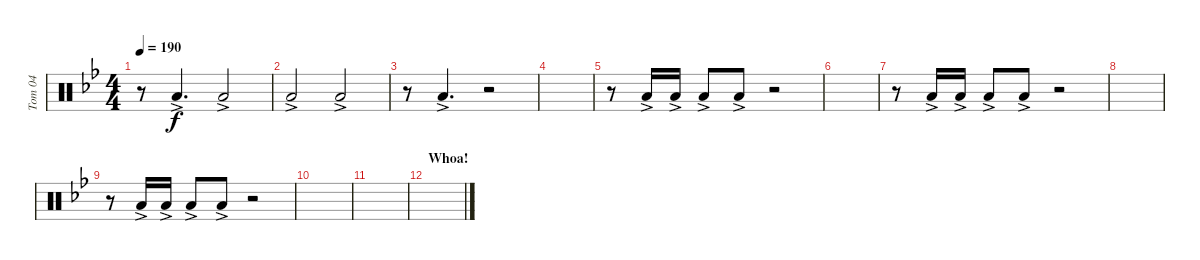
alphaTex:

\track ("Tom 04" "Tom 04") {instrument percussion}
\staff {score}
\articulation defaults
\ts (4 4)
\tempo 190
\clef neutral
\ks bb
r.8{dy f} "Low Tom (hit)"{ac}.4{d} "Low Tom (hit)"{ac}.2 |
"Low Tom (hit)"{ac}.2 "Low Tom (hit)"{ac}.2 |
r.8 "Low Tom (hit)"{ac}.4{d} r.2 |
|
r.8 "Low Tom (hit)"{ac}.16 "Low Tom (hit)"{ac}.16 "Low Tom (hit)"{ac}.8 "Low Tom (hit)"{ac}.8 r.2 |
|
r.8 "Low Tom (hit)"{ac}.16 "Low Tom (hit)"{ac}.16 "Low Tom (hit)"{ac}.8 "Low Tom (hit)"{ac}.8 r.2 |
|
r.8 "Low Tom (hit)"{ac}.16 "Low Tom (hit)"{ac}.16 "Low Tom (hit)"{ac}.8 "Low Tom (hit)"{ac}.8 r.2 |
|
|
\section ("" "Whoa!")
